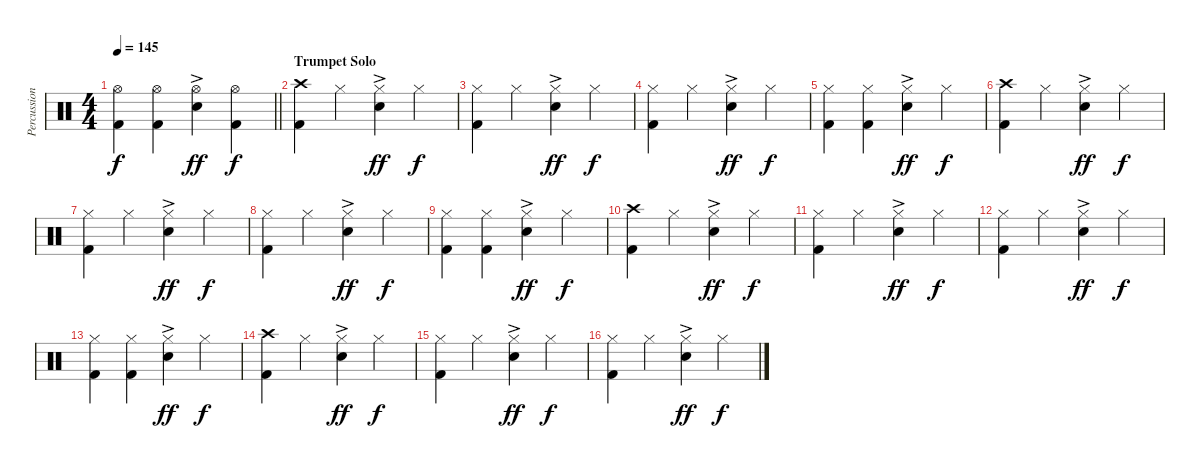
\track ("Percussion" "Percussion") {instrument percussion}
\staff {score}
\articulation defaults
\ts (4 4)
\tempo 145
\clef neutral
\barLineRight lightlight
\ks c
("Hi-Hat (open)" "Kick (hit) 2").4{dy f} ("Hi-Hat (open)" "Kick (hit) 2").4 ("Hi-Hat (open)" "Electric Snare (hit)"{ac}).4{dy ff} ("Hi-Hat (open)" "Kick (hit) 2").4{dy f} |
\section ("" "Trumpet Solo")
("Crash high (hit)" "Kick (hit) 2").4 "Hi-Hat (closed)".4 ("Hi-Hat (closed)" "Electric Snare (hit)"{ac}).4{dy ff} "Hi-Hat (closed)".4{dy f} |
("Hi-Hat (closed)" "Kick (hit) 2").4 "Hi-Hat (closed)".4 ("Hi-Hat (closed)" "Electric Snare (hit)"{ac}).4{dy ff} "Hi-Hat (closed)".4{dy f} |
("Hi-Hat (closed)" "Kick (hit) 2").4 "Hi-Hat (closed)".4 ("Hi-Hat (closed)" "Electric Snare (hit)"{ac}).4{dy ff} "Hi-Hat (closed)".4{dy f} |
("Hi-Hat (closed)" "Kick (hit) 2").4 ("Hi-Hat (closed)" "Kick (hit) 2").4 ("Hi-Hat (closed)" "Electric Snare (hit)"{ac}).4{dy ff} "Hi-Hat (closed)".4{dy f} |
("Crash high (hit)" "Kick (hit) 2").4 "Hi-Hat (closed)".4 ("Hi-Hat (closed)" "Electric Snare (hit)"{ac}).4{dy ff} "Hi-Hat (closed)".4{dy f} |
("Hi-Hat (closed)" "Kick (hit) 2").4 "Hi-Hat (closed)".4 ("Hi-Hat (closed)" "Electric Snare (hit)"{ac}).4{dy ff} "Hi-Hat (closed)".4{dy f} |
("Hi-Hat (closed)" "Kick (hit) 2").4 "Hi-Hat (closed)".4 ("Hi-Hat (closed)" "Electric Snare (hit)"{ac}).4{dy ff} "Hi-Hat (closed)".4{dy f} |
("Hi-Hat (closed)" "Kick (hit) 2").4 ("Hi-Hat (closed)" "Kick (hit) 2").4 ("Hi-Hat (closed)" "Electric Snare (hit)"{ac}).4{dy ff} "Hi-Hat (closed)".4{dy f} |
("Crash high (hit)" "Kick (hit) 2").4 "Hi-Hat (closed)".4 ("Hi-Hat (closed)" "Electric Snare (hit)"{ac}).4{dy ff} "Hi-Hat (closed)".4{dy f} |
("Hi-Hat (closed)" "Kick (hit) 2").4 "Hi-Hat (closed)".4 ("Hi-Hat (closed)" "Electric Snare (hit)"{ac}).4{dy ff} "Hi-Hat (closed)".4{dy f} |
("Hi-Hat (closed)" "Kick (hit) 2").4 "Hi-Hat (closed)".4 ("Hi-Hat (closed)" "Electric Snare (hit)"{ac}).4{dy ff} "Hi-Hat (closed)".4{dy f} |
("Hi-Hat (closed)" "Kick (hit) 2").4 ("Hi-Hat (closed)" "Kick (hit) 2").4 ("Hi-Hat (closed)" "Electric Snare (hit)"{ac}).4{dy ff} "Hi-Hat (closed)".4{dy f} |
("Crash high (hit)" "Kick (hit) 2").4 "Hi-Hat (closed)".4 ("Hi-Hat (closed)" "Electric Snare (hit)"{ac}).4{dy ff} "Hi-Hat (closed)".4{dy f} |
("Hi-Hat (closed)" "Kick (hit) 2").4 "Hi-Hat (closed)".4 ("Hi-Hat (closed)" "Electric Snare (hit)"{ac}).4{dy ff} "Hi-Hat (closed)".4{dy f} |
("Hi-Hat (closed)" "Kick (hit) 2").4 "Hi-Hat (closed)".4 ("Hi-Hat (closed)" "Electric Snare (hit)"{ac}).4{dy ff} "Hi-Hat (closed)".4{dy f}
